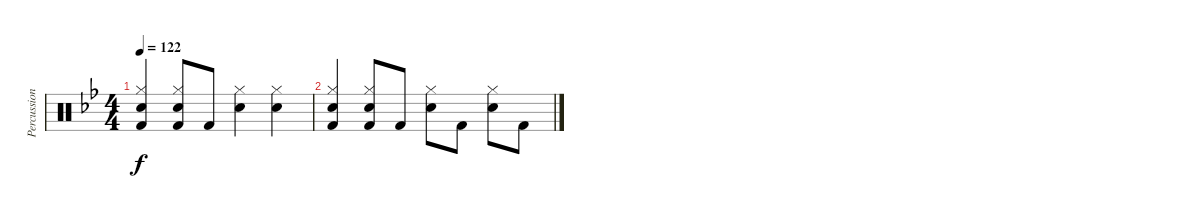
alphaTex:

\track ("Percussion" "Percussion") {instrument percussion}
\staff {score}
\articulation defaults
\ts (4 4)
\tempo 122
\clef neutral
\ks bb
("Hand Clap (hit)" "Hi-Hat (closed)" "Kick (hit) 2").4{dy f} ("Hand Clap (hit)" "Hi-Hat (closed)" "Kick (hit) 2").8 "Kick (hit) 2".8 ("Hand Clap (hit)" "Hi-Hat (closed)").4 ("Hand Clap (hit)" "Hi-Hat (closed)").4 |
("Hand Clap (hit)" "Hi-Hat (closed)" "Kick (hit) 2").4 ("Hand Clap (hit)" "Hi-Hat (closed)" "Kick (hit) 2").8 "Kick (hit) 2".8 ("Hand Clap (hit)" "Hi-Hat (closed)").8 "Kick (hit) 2".8 ("Hand Clap (hit)" "Hi-Hat (closed)").8 "Kick (hit) 2".8
